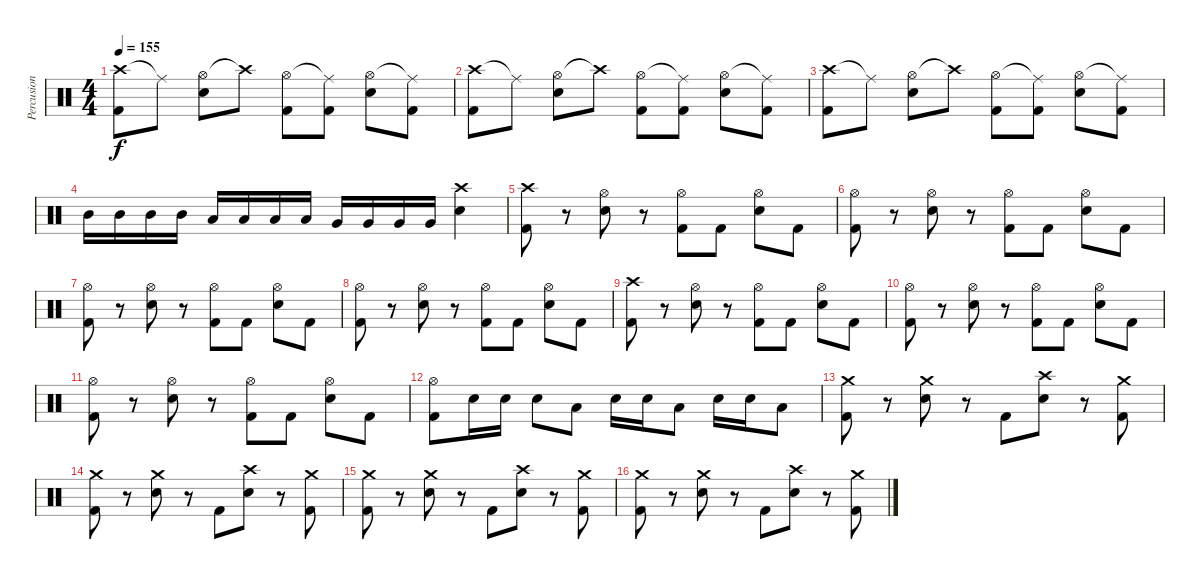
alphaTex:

\track ("Percusion" "Percusion") {instrument percussion}
\staff {score}
\articulation defaults
\ts (4 4)
\tempo 155
\clef neutral
\ks c
("Crash high (hit)" "Kick (hit) 2").8{dy f} "Ride (middle)"{t}.8 ("Hi-Hat (open)" "Electric Snare (hit)").8 "Crash high (hit)"{t}.8 ("Hi-Hat (open)" "Kick (hit) 2").8 ("Ride (middle)"{t} "Kick (hit) 2").8 ("Hi-Hat (open)" "Electric Snare (hit)").8 ("Ride (middle)"{t} "Kick (hit) 2").8 |
("Crash high (hit)" "Kick (hit) 2").8 "Ride (middle)"{t}.8 ("Hi-Hat (open)" "Electric Snare (hit)").8 "Crash high (hit)"{t}.8 ("Hi-Hat (open)" "Kick (hit) 2").8 ("Ride (middle)"{t} "Kick (hit) 2").8 ("Hi-Hat (open)" "Electric Snare (hit)").8 ("Ride (middle)"{t} "Kick (hit) 2").8 |
("Crash high (hit)" "Kick (hit) 2").8 "Ride (middle)"{t}.8 ("Hi-Hat (open)" "Electric Snare (hit)").8 "Crash high (hit)"{t}.8 ("Hi-Hat (open)" "Kick (hit) 2").8 ("Ride (middle)"{t} "Kick (hit) 2").8 ("Hi-Hat (open)" "Electric Snare (hit)").8 ("Ride (middle)"{t} "Kick (hit) 2").8 |
"Mid Tom (hit)".16 "Mid Tom (hit)".16 "Mid Tom (hit)".16 "Mid Tom (hit)".16 "Low Tom (hit)".16 "Low Tom (hit)".16 "Low Tom (hit)".16 "Low Tom (hit)".16 "Very Low Tom (hit)".16 "Very Low Tom (hit)".16 "Very Low Tom (hit)".16 "Very Low Tom (hit)".16 ("Crash high (hit)" "Electric Snare (hit)").4 |
("Crash high (hit)" "Kick (hit) 2").8 r.8 ("Hi-Hat (open)" "Electric Snare (hit)").8 r.8 ("Hi-Hat (open)" "Kick (hit) 2").8 "Kick (hit) 2".8 ("Hi-Hat (open)" "Electric Snare (hit)").8 "Kick (hit) 2".8 |
("Hi-Hat (open)" "Kick (hit) 2").8 r.8 ("Hi-Hat (open)" "Electric Snare (hit)").8 r.8 ("Hi-Hat (open)" "Kick (hit) 2").8 "Kick (hit) 2".8 ("Hi-Hat (open)" "Electric Snare (hit)").8 "Kick (hit) 2".8 |
("Hi-Hat (open)" "Kick (hit) 2").8 r.8 ("Hi-Hat (open)" "Electric Snare (hit)").8 r.8 ("Hi-Hat (open)" "Kick (hit) 2").8 "Kick (hit) 2".8 ("Hi-Hat (open)" "Electric Snare (hit)").8 "Kick (hit) 2".8 |
("Hi-Hat (open)" "Kick (hit) 2").8 r.8 ("Hi-Hat (open)" "Electric Snare (hit)").8 r.8 ("Hi-Hat (open)" "Kick (hit) 2").8 "Kick (hit) 2".8 ("Hi-Hat (open)" "Electric Snare (hit)").8 "Kick (hit) 2".8 |
("Crash high (hit)" "Kick (hit) 2").8 r.8 ("Hi-Hat (open)" "Electric Snare (hit)").8 r.8 ("Hi-Hat (open)" "Kick (hit) 2").8 "Kick (hit) 2".8 ("Hi-Hat (open)" "Electric Snare (hit)").8 "Kick (hit) 2".8 |
("Hi-Hat (open)" "Kick (hit) 2").8 r.8 ("Hi-Hat (open)" "Electric Snare (hit)").8 r.8 ("Hi-Hat (open)" "Kick (hit) 2").8 "Kick (hit) 2".8 ("Hi-Hat (open)" "Electric Snare (hit)").8 "Kick (hit) 2".8 |
("Hi-Hat (open)" "Kick (hit) 2").8 r.8 ("Hi-Hat (open)" "Electric Snare (hit)").8 r.8 ("Hi-Hat (open)" "Kick (hit) 2").8 "Kick (hit) 2".8 ("Hi-Hat (open)" "Electric Snare (hit)").8 "Kick (hit) 2".8 |
("Hi-Hat (open)" "Kick (hit) 2").8 "Electric Snare (hit)".16 "Electric Snare (hit)".16 "Electric Snare (hit)".8 "Low Tom (hit)".8 "Electric Snare (hit)".16 "Electric Snare (hit)".16 "Low Tom (hit)".8 "Electric Snare (hit)".16 "Electric Snare (hit)".16 "Low Tom (hit)".8 |
("Crash medium (hit)" "Kick (hit) 2").8 r.8 ("Crash medium (hit)" "Electric Snare (hit)").8 r.8 "Kick (hit) 2".8 ("Crash high (hit)" "Electric Snare (hit)").8 r.8 ("Crash medium (hit)" "Kick (hit) 2").8 |
("Crash medium (hit)" "Kick (hit) 2").8 r.8 ("Crash medium (hit)" "Electric Snare (hit)").8 r.8 "Kick (hit) 2".8 ("Crash high (hit)" "Electric Snare (hit)").8 r.8 ("Crash medium (hit)" "Kick (hit) 2").8 |
("Crash medium (hit)" "Kick (hit) 2").8 r.8 ("Crash medium (hit)" "Electric Snare (hit)").8 r.8 "Kick (hit) 2".8 ("Crash high (hit)" "Electric Snare (hit)").8 r.8 ("Crash medium (hit)" "Kick (hit) 2").8 |
("Crash medium (hit)" "Kick (hit) 2").8 r.8 ("Crash medium (hit)" "Electric Snare (hit)").8 r.8 "Kick (hit) 2".8 ("Crash high (hit)" "Electric Snare (hit)").8 r.8 ("Crash medium (hit)" "Kick (hit) 2").8
